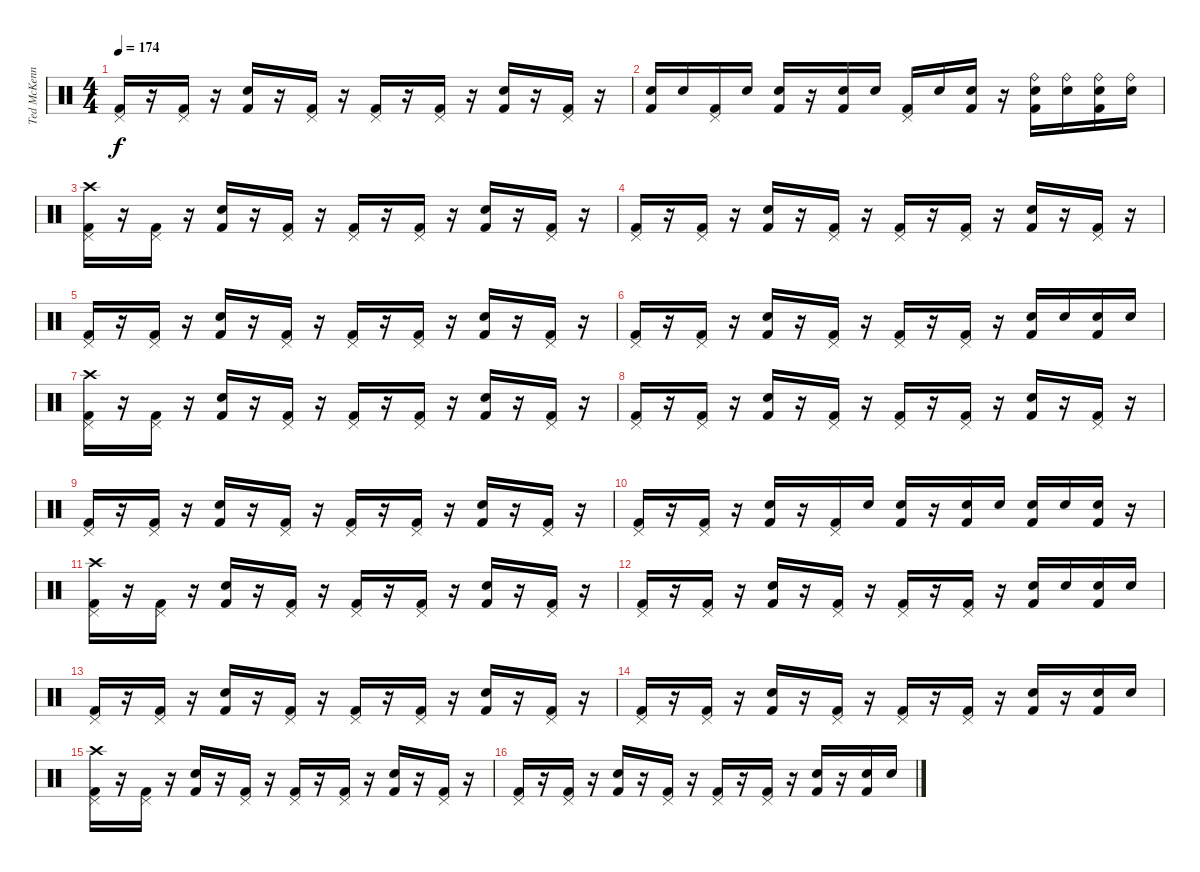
\track ("Ted McKenna" "Ted McKenn") {instrument percussion}
\staff {score}
\articulation defaults
\ts (4 4)
\tempo 174
\clef neutral
\ks c
("Pedal Hi-Hat (hit)" "Kick (hit) 2").16{dy f} r.16 ("Pedal Hi-Hat (hit)" "Kick (hit) 2").16 r.16 ("Snare (hit) 2" "Kick (hit) 2").16 r.16 ("Pedal Hi-Hat (hit)" "Kick (hit) 2").16 r.16 ("Pedal Hi-Hat (hit)" "Kick (hit) 2").16 r.16 ("Pedal Hi-Hat (hit)" "Kick (hit) 2").16 r.16 ("Snare (hit) 2" "Kick (hit) 2").16 r.16 ("Pedal Hi-Hat (hit)" "Kick (hit) 2").16 r.16 |
("Electric Snare (hit)" "Kick (hit) 2").16 "Electric Snare (hit)".16 ("Pedal Hi-Hat (hit)" "Kick (hit) 2").16 "Electric Snare (hit)".16 ("Electric Snare (hit)" "Kick (hit) 2").16 r.16 ("Electric Snare (hit)" "Kick (hit) 2").16 "Electric Snare (hit)".16 ("Pedal Hi-Hat (hit)" "Kick (hit) 2").16 "Electric Snare (hit)".16 ("Electric Snare (hit)" "Kick (hit) 2").16 r.16 ("Ride (bell)" "Snare (hit) 2" "Kick (hit) 2").16 ("Ride (bell)" "Snare (hit) 2").16 ("Ride (bell)" "Snare (hit) 2" "Kick (hit) 2").16 ("Ride (bell)" "Snare (hit) 2").16 |
("Crash high (hit)" "Pedal Hi-Hat (hit)" "Kick (hit) 2").16 r.16 ("Pedal Hi-Hat (hit)" "Kick (hit) 2").16 r.16 ("Snare (hit) 2" "Kick (hit) 2").16 r.16 ("Pedal Hi-Hat (hit)" "Kick (hit) 2").16 r.16 ("Pedal Hi-Hat (hit)" "Kick (hit) 2").16 r.16 ("Pedal Hi-Hat (hit)" "Kick (hit) 2").16 r.16 ("Snare (hit) 2" "Kick (hit) 2").16 r.16 ("Pedal Hi-Hat (hit)" "Kick (hit) 2").16 r.16 |
("Pedal Hi-Hat (hit)" "Kick (hit) 2").16 r.16 ("Pedal Hi-Hat (hit)" "Kick (hit) 2").16 r.16 ("Snare (hit) 2" "Kick (hit) 2").16 r.16 ("Pedal Hi-Hat (hit)" "Kick (hit) 2").16 r.16 ("Pedal Hi-Hat (hit)" "Kick (hit) 2").16 r.16 ("Pedal Hi-Hat (hit)" "Kick (hit) 2").16 r.16 ("Snare (hit) 2" "Kick (hit) 2").16 r.16 ("Pedal Hi-Hat (hit)" "Kick (hit) 2").16 r.16 |
("Pedal Hi-Hat (hit)" "Kick (hit) 2").16 r.16 ("Pedal Hi-Hat (hit)" "Kick (hit) 2").16 r.16 ("Snare (hit) 2" "Kick (hit) 2").16 r.16 ("Pedal Hi-Hat (hit)" "Kick (hit) 2").16 r.16 ("Pedal Hi-Hat (hit)" "Kick (hit) 2").16 r.16 ("Pedal Hi-Hat (hit)" "Kick (hit) 2").16 r.16 ("Snare (hit) 2" "Kick (hit) 2").16 r.16 ("Pedal Hi-Hat (hit)" "Kick (hit) 2").16 r.16 |
("Pedal Hi-Hat (hit)" "Kick (hit) 2").16 r.16 ("Pedal Hi-Hat (hit)" "Kick (hit) 2").16 r.16 ("Snare (hit) 2" "Kick (hit) 2").16 r.16 ("Pedal Hi-Hat (hit)" "Kick (hit) 2").16 r.16 ("Pedal Hi-Hat (hit)" "Kick (hit) 2").16 r.16 ("Pedal Hi-Hat (hit)" "Kick (hit) 2").16 r.16 ("Snare (hit) 2" "Kick (hit) 2").16 "Snare (hit) 2".16 ("Snare (hit) 2" "Kick (hit) 2").16 "Snare (hit) 2".16 |
("Crash high (hit)" "Pedal Hi-Hat (hit)" "Kick (hit) 2").16 r.16 ("Pedal Hi-Hat (hit)" "Kick (hit) 2").16 r.16 ("Snare (hit) 2" "Kick (hit) 2").16 r.16 ("Pedal Hi-Hat (hit)" "Kick (hit) 2").16 r.16 ("Pedal Hi-Hat (hit)" "Kick (hit) 2").16 r.16 ("Pedal Hi-Hat (hit)" "Kick (hit) 2").16 r.16 ("Snare (hit) 2" "Kick (hit) 2").16 r.16 ("Pedal Hi-Hat (hit)" "Kick (hit) 2").16 r.16 |
("Pedal Hi-Hat (hit)" "Kick (hit) 2").16 r.16 ("Pedal Hi-Hat (hit)" "Kick (hit) 2").16 r.16 ("Snare (hit) 2" "Kick (hit) 2").16 r.16 ("Pedal Hi-Hat (hit)" "Kick (hit) 2").16 r.16 ("Pedal Hi-Hat (hit)" "Kick (hit) 2").16 r.16 ("Pedal Hi-Hat (hit)" "Kick (hit) 2").16 r.16 ("Snare (hit) 2" "Kick (hit) 2").16 r.16 ("Pedal Hi-Hat (hit)" "Kick (hit) 2").16 r.16 |
("Pedal Hi-Hat (hit)" "Kick (hit) 2").16 r.16 ("Pedal Hi-Hat (hit)" "Kick (hit) 2").16 r.16 ("Snare (hit) 2" "Kick (hit) 2").16 r.16 ("Pedal Hi-Hat (hit)" "Kick (hit) 2").16 r.16 ("Pedal Hi-Hat (hit)" "Kick (hit) 2").16 r.16 ("Pedal Hi-Hat (hit)" "Kick (hit) 2").16 r.16 ("Snare (hit) 2" "Kick (hit) 2").16 r.16 ("Pedal Hi-Hat (hit)" "Kick (hit) 2").16 r.16 |
("Pedal Hi-Hat (hit)" "Kick (hit) 2").16 r.16 ("Pedal Hi-Hat (hit)" "Kick (hit) 2").16 r.16 ("Snare (hit) 2" "Kick (hit) 2").16 r.16 ("Pedal Hi-Hat (hit)" "Kick (hit) 2").16 "Snare (hit) 2".16 ("Snare (hit) 2" "Kick (hit) 2").16 r.16 ("Snare (hit) 2" "Kick (hit) 2").16 "Snare (hit) 2".16 ("Snare (hit) 2" "Kick (hit) 2").16 "Snare (hit) 2".16 ("Snare (hit) 2" "Kick (hit) 2").16 r.16 |
("Crash high (hit)" "Pedal Hi-Hat (hit)" "Kick (hit) 2").16 r.16 ("Pedal Hi-Hat (hit)" "Kick (hit) 2").16 r.16 ("Snare (hit) 2" "Kick (hit) 2").16 r.16 ("Pedal Hi-Hat (hit)" "Kick (hit) 2").16 r.16 ("Pedal Hi-Hat (hit)" "Kick (hit) 2").16 r.16 ("Pedal Hi-Hat (hit)" "Kick (hit) 2").16 r.16 ("Snare (hit) 2" "Kick (hit) 2").16 r.16 ("Pedal Hi-Hat (hit)" "Kick (hit) 2").16 r.16 |
("Pedal Hi-Hat (hit)" "Kick (hit) 2").16 r.16 ("Pedal Hi-Hat (hit)" "Kick (hit) 2").16 r.16 ("Snare (hit) 2" "Kick (hit) 2").16 r.16 ("Pedal Hi-Hat (hit)" "Kick (hit) 2").16 r.16 ("Pedal Hi-Hat (hit)" "Kick (hit) 2").16 r.16 ("Pedal Hi-Hat (hit)" "Kick (hit) 2").16 r.16 ("Snare (hit) 2" "Kick (hit) 2").16 "Snare (hit) 2".16 ("Electric Snare (hit)" "Kick (hit) 2").16 "Electric Snare (hit)".16 |
("Pedal Hi-Hat (hit)" "Kick (hit) 2").16 r.16 ("Pedal Hi-Hat (hit)" "Kick (hit) 2").16 r.16 ("Snare (hit) 2" "Kick (hit) 2").16 r.16 ("Pedal Hi-Hat (hit)" "Kick (hit) 2").16 r.16 ("Pedal Hi-Hat (hit)" "Kick (hit) 2").16 r.16 ("Pedal Hi-Hat (hit)" "Kick (hit) 2").16 r.16 ("Snare (hit) 2" "Kick (hit) 2").16 r.16 ("Pedal Hi-Hat (hit)" "Kick (hit) 2").16 r.16 |
("Pedal Hi-Hat (hit)" "Kick (hit) 2").16 r.16 ("Pedal Hi-Hat (hit)" "Kick (hit) 2").16 r.16 ("Snare (hit) 2" "Kick (hit) 2").16 r.16 ("Pedal Hi-Hat (hit)" "Kick (hit) 2").16 r.16 ("Pedal Hi-Hat (hit)" "Kick (hit) 2").16 r.16 ("Pedal Hi-Hat (hit)" "Kick (hit) 2").16 r.16 ("Snare (hit) 2" "Kick (hit) 2").16 r.16 ("Electric Snare (hit)" "Kick (hit) 2").16 "Electric Snare (hit)".16 |
("Crash high (hit)" "Pedal Hi-Hat (hit)" "Kick (hit) 2").16 r.16 ("Pedal Hi-Hat (hit)" "Kick (hit) 2").16 r.16 ("Snare (hit) 2" "Kick (hit) 2").16 r.16 ("Pedal Hi-Hat (hit)" "Kick (hit) 2").16 r.16 ("Pedal Hi-Hat (hit)" "Kick (hit) 2").16 r.16 ("Pedal Hi-Hat (hit)" "Kick (hit) 2").16 r.16 ("Snare (hit) 2" "Kick (hit) 2").16 r.16 ("Pedal Hi-Hat (hit)" "Kick (hit) 2").16 r.16 |
("Pedal Hi-Hat (hit)" "Kick (hit) 2").16 r.16 ("Pedal Hi-Hat (hit)" "Kick (hit) 2").16 r.16 ("Snare (hit) 2" "Kick (hit) 2").16 r.16 ("Pedal Hi-Hat (hit)" "Kick (hit) 2").16 r.16 ("Pedal Hi-Hat (hit)" "Kick (hit) 2").16 r.16 ("Pedal Hi-Hat (hit)" "Kick (hit) 2").16 r.16 ("Snare (hit) 2" "Kick (hit) 2").16 r.16 ("Electric Snare (hit)" "Kick (hit) 2").16 "Electric Snare (hit)".16
